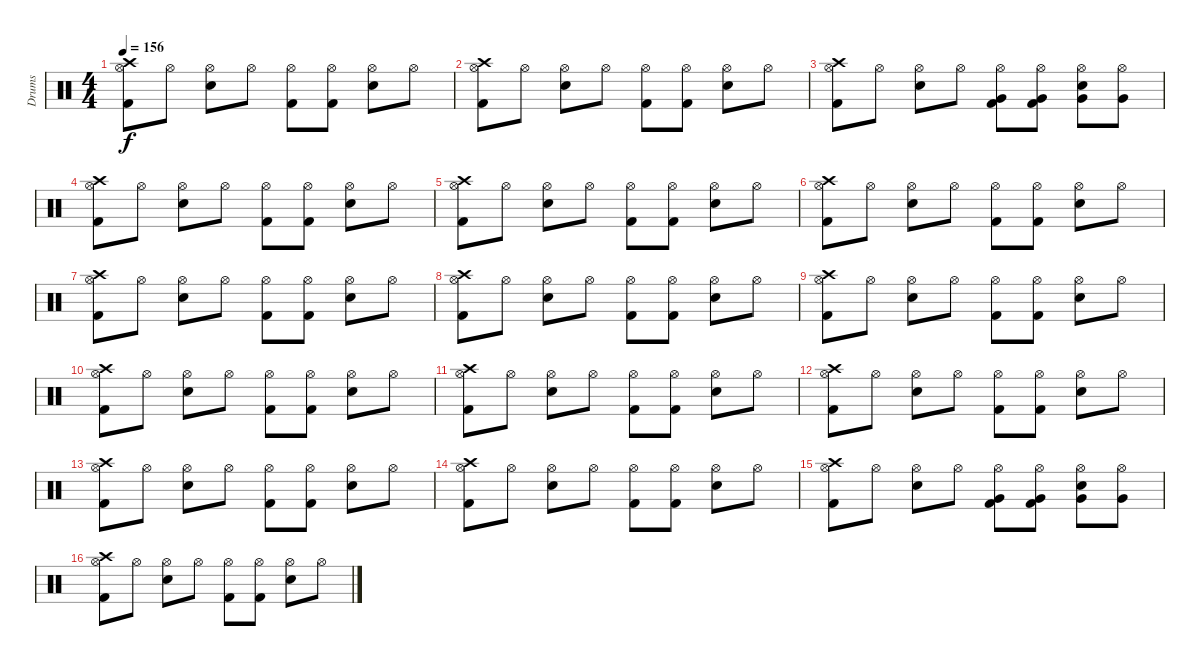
\track ("Drums" "Drums") {instrument percussion}
\staff {score}
\articulation defaults
\ts (4 4)
\tempo 156
\clef neutral
\ks c
("Crash high (hit)" "Hi-Hat (open)" "Kick (hit) 2").8{dy f} "Hi-Hat (open)".8 ("Hi-Hat (open)" "Snare (hit) 2").8 "Hi-Hat (open)".8 ("Hi-Hat (open)" "Kick (hit) 2").8 ("Hi-Hat (open)" "Kick (hit) 2").8 ("Hi-Hat (open)" "Snare (hit) 2").8 "Hi-Hat (open)".8 |
("Crash high (hit)" "Hi-Hat (open)" "Kick (hit) 2").8 "Hi-Hat (open)".8 ("Hi-Hat (open)" "Snare (hit) 2").8 "Hi-Hat (open)".8 ("Hi-Hat (open)" "Kick (hit) 2").8 ("Hi-Hat (open)" "Kick (hit) 2").8 ("Hi-Hat (open)" "Snare (hit) 2").8 "Hi-Hat (open)".8 |
("Crash high (hit)" "Hi-Hat (open)" "Kick (hit) 2").8 "Hi-Hat (open)".8 ("Hi-Hat (open)" "Snare (hit) 2").8 "Hi-Hat (open)".8 ("Hi-Hat (open)" "Very Low Tom (hit)" "Kick (hit) 2").8 ("Hi-Hat (open)" "Very Low Tom (hit)" "Kick (hit) 2").8 ("Hi-Hat (open)" "Snare (hit) 2" "Very Low Tom (hit)").8 ("Hi-Hat (open)" "Very Low Tom (hit)").8 |
("Crash high (hit)" "Hi-Hat (open)" "Kick (hit) 2").8 "Hi-Hat (open)".8 ("Hi-Hat (open)" "Snare (hit) 2").8 "Hi-Hat (open)".8 ("Hi-Hat (open)" "Kick (hit) 2").8 ("Hi-Hat (open)" "Kick (hit) 2").8 ("Hi-Hat (open)" "Snare (hit) 2").8 "Hi-Hat (open)".8 |
("Crash high (hit)" "Hi-Hat (open)" "Kick (hit) 2").8 "Hi-Hat (open)".8 ("Hi-Hat (open)" "Snare (hit) 2").8 "Hi-Hat (open)".8 ("Hi-Hat (open)" "Kick (hit) 2").8 ("Hi-Hat (open)" "Kick (hit) 2").8 ("Hi-Hat (open)" "Snare (hit) 2").8 "Hi-Hat (open)".8 |
("Crash high (hit)" "Hi-Hat (open)" "Kick (hit) 2").8 "Hi-Hat (open)".8 ("Hi-Hat (open)" "Snare (hit) 2").8 "Hi-Hat (open)".8 ("Hi-Hat (open)" "Kick (hit) 2").8 ("Hi-Hat (open)" "Kick (hit) 2").8 ("Hi-Hat (open)" "Snare (hit) 2").8 "Hi-Hat (open)".8 |
("Crash high (hit)" "Hi-Hat (open)" "Kick (hit) 2").8 "Hi-Hat (open)".8 ("Hi-Hat (open)" "Snare (hit) 2").8 "Hi-Hat (open)".8 ("Hi-Hat (open)" "Kick (hit) 2").8 ("Hi-Hat (open)" "Kick (hit) 2").8 ("Hi-Hat (open)" "Snare (hit) 2").8 "Hi-Hat (open)".8 |
("Crash high (hit)" "Hi-Hat (open)" "Kick (hit) 2").8 "Hi-Hat (open)".8 ("Hi-Hat (open)" "Snare (hit) 2").8 "Hi-Hat (open)".8 ("Hi-Hat (open)" "Kick (hit) 2").8 ("Hi-Hat (open)" "Kick (hit) 2").8 ("Hi-Hat (open)" "Snare (hit) 2").8 "Hi-Hat (open)".8 |
("Crash high (hit)" "Hi-Hat (open)" "Kick (hit) 2").8 "Hi-Hat (open)".8 ("Hi-Hat (open)" "Snare (hit) 2").8 "Hi-Hat (open)".8 ("Hi-Hat (open)" "Kick (hit) 2").8 ("Hi-Hat (open)" "Kick (hit) 2").8 ("Hi-Hat (open)" "Snare (hit) 2").8 "Hi-Hat (open)".8 |
("Crash high (hit)" "Hi-Hat (open)" "Kick (hit) 2").8 "Hi-Hat (open)".8 ("Hi-Hat (open)" "Snare (hit) 2").8 "Hi-Hat (open)".8 ("Hi-Hat (open)" "Kick (hit) 2").8 ("Hi-Hat (open)" "Kick (hit) 2").8 ("Hi-Hat (open)" "Snare (hit) 2").8 "Hi-Hat (open)".8 |
("Crash high (hit)" "Hi-Hat (open)" "Kick (hit) 2").8 "Hi-Hat (open)".8 ("Hi-Hat (open)" "Snare (hit) 2").8 "Hi-Hat (open)".8 ("Hi-Hat (open)" "Kick (hit) 2").8 ("Hi-Hat (open)" "Kick (hit) 2").8 ("Hi-Hat (open)" "Snare (hit) 2").8 "Hi-Hat (open)".8 |
("Crash high (hit)" "Hi-Hat (open)" "Kick (hit) 2").8 "Hi-Hat (open)".8 ("Hi-Hat (open)" "Snare (hit) 2").8 "Hi-Hat (open)".8 ("Hi-Hat (open)" "Kick (hit) 2").8 ("Hi-Hat (open)" "Kick (hit) 2").8 ("Hi-Hat (open)" "Snare (hit) 2").8 "Hi-Hat (open)".8 |
("Crash high (hit)" "Hi-Hat (open)" "Kick (hit) 2").8 "Hi-Hat (open)".8 ("Hi-Hat (open)" "Snare (hit) 2").8 "Hi-Hat (open)".8 ("Hi-Hat (open)" "Kick (hit) 2").8 ("Hi-Hat (open)" "Kick (hit) 2").8 ("Hi-Hat (open)" "Snare (hit) 2").8 "Hi-Hat (open)".8 |
("Crash high (hit)" "Hi-Hat (open)" "Kick (hit) 2").8 "Hi-Hat (open)".8 ("Hi-Hat (open)" "Snare (hit) 2").8 "Hi-Hat (open)".8 ("Hi-Hat (open)" "Kick (hit) 2").8 ("Hi-Hat (open)" "Kick (hit) 2").8 ("Hi-Hat (open)" "Snare (hit) 2").8 "Hi-Hat (open)".8 |
("Crash high (hit)" "Hi-Hat (open)" "Kick (hit) 2").8 "Hi-Hat (open)".8 ("Hi-Hat (open)" "Snare (hit) 2").8 "Hi-Hat (open)".8 ("Hi-Hat (open)" "Very Low Tom (hit)" "Kick (hit) 2").8 ("Hi-Hat (open)" "Very Low Tom (hit)" "Kick (hit) 2").8 ("Hi-Hat (open)" "Snare (hit) 2" "Very Low Tom (hit)").8 ("Hi-Hat (open)" "Very Low Tom (hit)").8 |
("Crash high (hit)" "Hi-Hat (open)" "Kick (hit) 2").8 "Hi-Hat (open)".8 ("Hi-Hat (open)" "Snare (hit) 2").8 "Hi-Hat (open)".8 ("Hi-Hat (open)" "Kick (hit) 2").8 ("Hi-Hat (open)" "Kick (hit) 2").8 ("Hi-Hat (open)" "Snare (hit) 2").8 "Hi-Hat (open)".8
